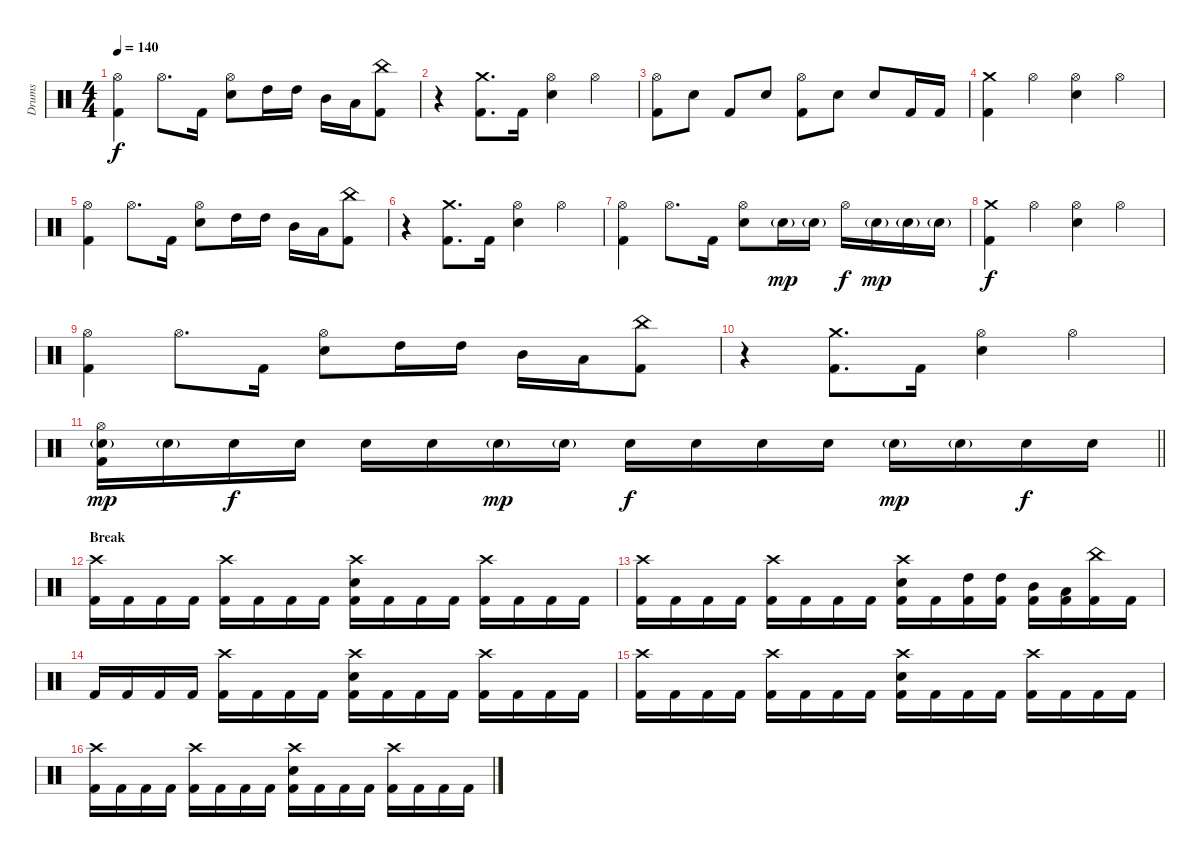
\track ("Drums" "Drums") {instrument percussion}
\staff {score}
\articulation defaults
\ts (4 4)
\tempo 140
\clef neutral
\ks c
("Hi-Hat (open)" "Kick (hit) 2").4{dy f} "Hi-Hat (open)".8{d} "Kick (hit) 2".16 ("Hi-Hat (open)" "Electric Snare (hit)").8 "High Tom (hit)".16 "High Tom (hit)".16 "Mid Tom (hit)".16 "Low Tom (hit)".16 ("China (hit)" "Kick (hit) 2").8 |
r.4 ("Crash medium (hit)" "Kick (hit) 2").8{d} "Kick (hit) 2".16 ("Hi-Hat (open)" "Electric Snare (hit)").4 "Hi-Hat (open)".4 |
("Hi-Hat (open)" "Kick (hit) 2").8 "Electric Snare (hit)".8 "Kick (hit) 2".8 "Electric Snare (hit)".8 ("Hi-Hat (open)" "Kick (hit) 2").8 "Electric Snare (hit)".8 "Electric Snare (hit)".8 "Kick (hit) 2".16 "Kick (hit) 2".16 |
("Crash medium (hit)" "Kick (hit) 2").4 "Hi-Hat (open)".4 ("Hi-Hat (open)" "Electric Snare (hit)").4 "Hi-Hat (open)".4 |
("Hi-Hat (open)" "Kick (hit) 2").4 "Hi-Hat (open)".8{d} "Kick (hit) 2".16 ("Hi-Hat (open)" "Electric Snare (hit)").8 "High Tom (hit)".16 "High Tom (hit)".16 "Mid Tom (hit)".16 "Low Tom (hit)".16 ("China (hit)" "Kick (hit) 2").8 |
r.4 ("Crash medium (hit)" "Kick (hit) 2").8{d} "Kick (hit) 2".16 ("Hi-Hat (open)" "Electric Snare (hit)").4 "Hi-Hat (open)".4 |
("Hi-Hat (open)" "Kick (hit) 2").4 "Hi-Hat (open)".8{d} "Kick (hit) 2".16 ("Hi-Hat (open)" "Electric Snare (hit)").8 "Electric Snare (hit)"{g}.16{dy mp} "Electric Snare (hit)"{g}.16 "Hi-Hat (open)".16{dy f} "Electric Snare (hit)"{g}.16{dy mp} "Electric Snare (hit)"{g}.16 "Electric Snare (hit)"{g}.16 |
("Crash medium (hit)" "Kick (hit) 2").4{dy f} "Hi-Hat (open)".4 ("Hi-Hat (open)" "Electric Snare (hit)").4 "Hi-Hat (open)".4 |
("Hi-Hat (open)" "Kick (hit) 2").4 "Hi-Hat (open)".8{d} "Kick (hit) 2".16 ("Hi-Hat (open)" "Electric Snare (hit)").8 "High Tom (hit)".16 "High Tom (hit)".16 "Mid Tom (hit)".16 "Low Tom (hit)".16 ("China (hit)" "Kick (hit) 2").8 |
r.4 ("Crash medium (hit)" "Kick (hit) 2").8{d} "Kick (hit) 2".16 ("Hi-Hat (open)" "Electric Snare (hit)").4 "Hi-Hat (open)".4 |
\barLineRight lightlight
("Hi-Hat (open)" "Electric Snare (hit)"{g} "Kick (hit) 2").16{dy mp} "Electric Snare (hit)"{g}.16 "Electric Snare (hit)".16{dy f} "Electric Snare (hit)".16 "Electric Snare (hit)".16 "Electric Snare (hit)".16 "Electric Snare (hit)"{g}.16{dy mp} "Electric Snare (hit)"{g}.16 "Electric Snare (hit)".16{dy f} "Electric Snare (hit)".16 "Electric Snare (hit)".16 "Electric Snare (hit)".16 "Electric Snare (hit)"{g}.16{dy mp} "Electric Snare (hit)"{g}.16 "Electric Snare (hit)".16{dy f} "Electric Snare (hit)".16 |
\section ("" "Break")
("Crash high (hit)" "Kick (hit) 2").16 "Kick (hit) 2".16 "Kick (hit) 2".16 "Kick (hit) 2".16 ("Crash high (hit)" "Kick (hit) 2").16 "Kick (hit) 2".16 "Kick (hit) 2".16 "Kick (hit) 2".16 ("Crash high (hit)" "Electric Snare (hit)" "Kick (hit) 2").16 "Kick (hit) 2".16 "Kick (hit) 2".16 "Kick (hit) 2".16 ("Crash high (hit)" "Kick (hit) 2").16 "Kick (hit) 2".16 "Kick (hit) 2".16 "Kick (hit) 2".16 |
("Crash high (hit)" "Kick (hit) 2").16 "Kick (hit) 2".16 "Kick (hit) 2".16 "Kick (hit) 2".16 ("Crash high (hit)" "Kick (hit) 2").16 "Kick (hit) 2".16 "Kick (hit) 2".16 "Kick (hit) 2".16 ("Crash high (hit)" "Electric Snare (hit)" "Kick (hit) 2").16 "Kick (hit) 2".16 ("High Tom (hit)" "Kick (hit) 2").16 ("High Tom (hit)" "Kick (hit) 2").16 ("Mid Tom (hit)" "Kick (hit) 2").16 ("Low Tom (hit)" "Kick (hit) 2").16 ("China (hit)" "Kick (hit) 2").16 "Kick (hit) 2".16 |
"Kick (hit) 2".16 "Kick (hit) 2".16 "Kick (hit) 2".16 "Kick (hit) 2".16 ("Crash high (hit)" "Kick (hit) 2").16 "Kick (hit) 2".16 "Kick (hit) 2".16 "Kick (hit) 2".16 ("Crash high (hit)" "Electric Snare (hit)" "Kick (hit) 2").16 "Kick (hit) 2".16 "Kick (hit) 2".16 "Kick (hit) 2".16 ("Crash high (hit)" "Kick (hit) 2").16 "Kick (hit) 2".16 "Kick (hit) 2".16 "Kick (hit) 2".16 |
("Crash high (hit)" "Kick (hit) 2").16 "Kick (hit) 2".16 "Kick (hit) 2".16 "Kick (hit) 2".16 ("Crash high (hit)" "Kick (hit) 2").16 "Kick (hit) 2".16 "Kick (hit) 2".16 "Kick (hit) 2".16 ("Crash high (hit)" "Electric Snare (hit)" "Kick (hit) 2").16 "Kick (hit) 2".16 "Kick (hit) 2".16 "Kick (hit) 2".16 ("Crash high (hit)" "Kick (hit) 2").16 "Kick (hit) 2".16 "Kick (hit) 2".16 "Kick (hit) 2".16 |
("Crash high (hit)" "Kick (hit) 2").16 "Kick (hit) 2".16 "Kick (hit) 2".16 "Kick (hit) 2".16 ("Crash high (hit)" "Kick (hit) 2").16 "Kick (hit) 2".16 "Kick (hit) 2".16 "Kick (hit) 2".16 ("Crash high (hit)" "Electric Snare (hit)" "Kick (hit) 2").16 "Kick (hit) 2".16 "Kick (hit) 2".16 "Kick (hit) 2".16 ("Crash high (hit)" "Kick (hit) 2").16 "Kick (hit) 2".16 "Kick (hit) 2".16 "Kick (hit) 2".16
